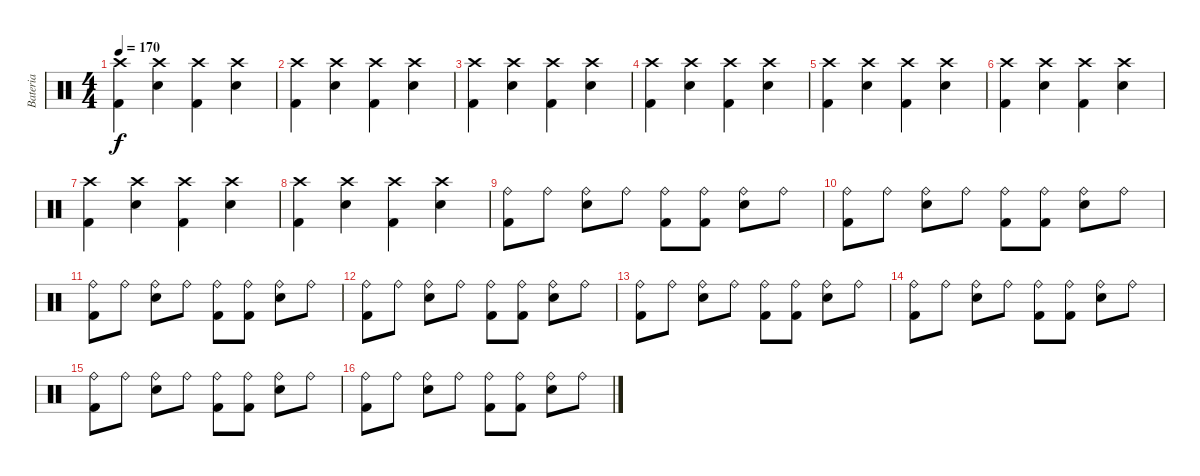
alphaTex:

\track ("Bateria" "Bateria") {instrument percussion}
\staff {score}
\articulation defaults
\ts (4 4)
\tempo 170
\clef neutral
\ks c
("Crash high (hit)" "Kick (hit) 2").4{dy f} ("Crash high (hit)" "Snare (hit) 2").4 ("Crash high (hit)" "Kick (hit) 2").4 ("Crash high (hit)" "Snare (hit) 2").4 |
("Crash high (hit)" "Kick (hit) 2").4 ("Crash high (hit)" "Snare (hit) 2").4 ("Crash high (hit)" "Kick (hit) 2").4 ("Crash high (hit)" "Snare (hit) 2").4 |
("Crash high (hit)" "Kick (hit) 2").4 ("Crash high (hit)" "Snare (hit) 2").4 ("Crash high (hit)" "Kick (hit) 2").4 ("Crash high (hit)" "Snare (hit) 2").4 |
("Crash high (hit)" "Kick (hit) 2").4 ("Crash high (hit)" "Snare (hit) 2").4 ("Crash high (hit)" "Kick (hit) 2").4 ("Crash high (hit)" "Snare (hit) 2").4 |
("Crash high (hit)" "Kick (hit) 2").4 ("Crash high (hit)" "Snare (hit) 2").4 ("Crash high (hit)" "Kick (hit) 2").4 ("Crash high (hit)" "Snare (hit) 2").4 |
("Crash high (hit)" "Kick (hit) 2").4 ("Crash high (hit)" "Snare (hit) 2").4 ("Crash high (hit)" "Kick (hit) 2").4 ("Crash high (hit)" "Snare (hit) 2").4 |
("Crash high (hit)" "Kick (hit) 2").4 ("Crash high (hit)" "Snare (hit) 2").4 ("Crash high (hit)" "Kick (hit) 2").4 ("Crash high (hit)" "Snare (hit) 2").4 |
("Crash high (hit)" "Kick (hit) 2").4 ("Crash high (hit)" "Snare (hit) 2").4 ("Crash high (hit)" "Kick (hit) 2").4 ("Crash high (hit)" "Snare (hit) 2").4 |
("Ride (bell)" "Kick (hit) 2").8 "Ride (bell)".8 ("Ride (bell)" "Snare (hit) 2").8 "Ride (bell)".8 ("Ride (bell)" "Kick (hit) 2").8 ("Ride (bell)" "Kick (hit) 2").8 ("Ride (bell)" "Snare (hit) 2").8 "Ride (bell)".8 |
("Ride (bell)" "Kick (hit) 2").8 "Ride (bell)".8 ("Ride (bell)" "Snare (hit) 2").8 "Ride (bell)".8 ("Ride (bell)" "Kick (hit) 2").8 ("Ride (bell)" "Kick (hit) 2").8 ("Ride (bell)" "Snare (hit) 2").8 "Ride (bell)".8 |
("Ride (bell)" "Kick (hit) 2").8 "Ride (bell)".8 ("Ride (bell)" "Snare (hit) 2").8 "Ride (bell)".8 ("Ride (bell)" "Kick (hit) 2").8 ("Ride (bell)" "Kick (hit) 2").8 ("Ride (bell)" "Snare (hit) 2").8 "Ride (bell)".8 |
("Ride (bell)" "Kick (hit) 2").8 "Ride (bell)".8 ("Ride (bell)" "Snare (hit) 2").8 "Ride (bell)".8 ("Ride (bell)" "Kick (hit) 2").8 ("Ride (bell)" "Kick (hit) 2").8 ("Ride (bell)" "Snare (hit) 2").8 "Ride (bell)".8 |
("Ride (bell)" "Kick (hit) 2").8 "Ride (bell)".8 ("Ride (bell)" "Snare (hit) 2").8 "Ride (bell)".8 ("Ride (bell)" "Kick (hit) 2").8 ("Ride (bell)" "Kick (hit) 2").8 ("Ride (bell)" "Snare (hit) 2").8 "Ride (bell)".8 |
("Ride (bell)" "Kick (hit) 2").8 "Ride (bell)".8 ("Ride (bell)" "Snare (hit) 2").8 "Ride (bell)".8 ("Ride (bell)" "Kick (hit) 2").8 ("Ride (bell)" "Kick (hit) 2").8 ("Ride (bell)" "Snare (hit) 2").8 "Ride (bell)".8 |
("Ride (bell)" "Kick (hit) 2").8 "Ride (bell)".8 ("Ride (bell)" "Snare (hit) 2").8 "Ride (bell)".8 ("Ride (bell)" "Kick (hit) 2").8 ("Ride (bell)" "Kick (hit) 2").8 ("Ride (bell)" "Snare (hit) 2").8 "Ride (bell)".8 |
("Ride (bell)" "Kick (hit) 2").8 "Ride (bell)".8 ("Ride (bell)" "Snare (hit) 2").8 "Ride (bell)".8 ("Ride (bell)" "Kick (hit) 2").8 ("Ride (bell)" "Kick (hit) 2").8 ("Ride (bell)" "Snare (hit) 2").8 "Ride (bell)".8
